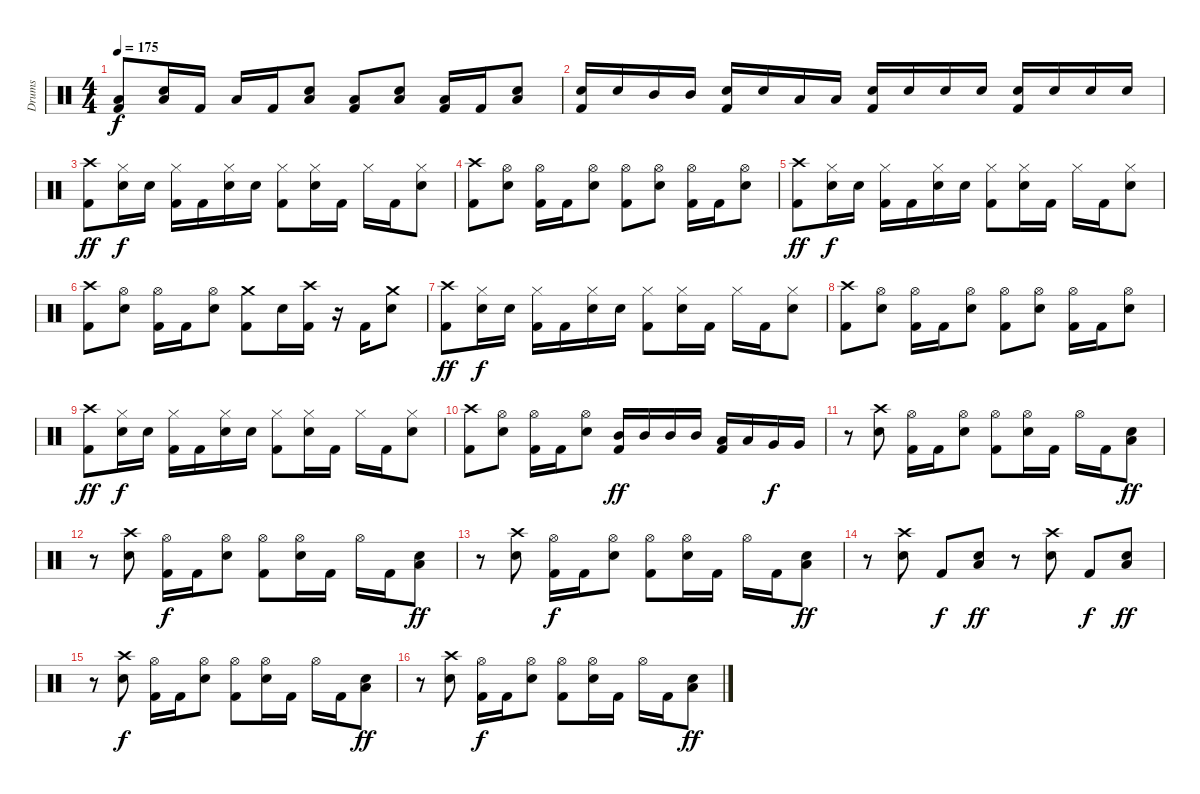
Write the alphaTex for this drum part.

\track ("Drums" "Drums") {instrument percussion}
\staff {score}
\articulation defaults
\ts (4 4)
\tempo 175
\clef neutral
\ks c
("Low Floor Tom (hit)" "Kick (hit) 2").8{dy f} ("Low Floor Tom (hit)" "Electric Snare (hit)").16 "Kick (hit) 2".16 "Low Floor Tom (hit)".16 "Kick (hit) 2".16 ("Low Floor Tom (hit)" "Electric Snare (hit)").8 ("Low Floor Tom (hit)" "Kick (hit) 2").8 ("Low Floor Tom (hit)" "Electric Snare (hit)").8 ("Low Floor Tom (hit)" "Kick (hit) 2").16 "Kick (hit) 2".16 ("Low Floor Tom (hit)" "Electric Snare (hit)").8 |
("Electric Snare (hit)" "Kick (hit) 2").16 "Electric Snare (hit)".16 "Mid Tom (hit)".16 "Mid Tom (hit)".16 ("Electric Snare (hit)" "Kick (hit) 2").16 "Electric Snare (hit)".16 "Low Tom (hit)".16 "Low Tom (hit)".16 ("Electric Snare (hit)" "Kick (hit) 2").16 "Electric Snare (hit)".16 "Electric Snare (hit)".16 "Electric Snare (hit)".16 ("Electric Snare (hit)" "Kick (hit) 2").16 "Electric Snare (hit)".16 "Electric Snare (hit)".16 "Electric Snare (hit)".16 |
("Crash high (hit)" "Kick (hit) 2").8{dy ff} ("Hi-Hat (closed)" "Electric Snare (hit)").16{dy f} "Electric Snare (hit)".16 ("Hi-Hat (closed)" "Kick (hit) 2").16 "Kick (hit) 2".16 ("Hi-Hat (closed)" "Electric Snare (hit)").16 "Electric Snare (hit)".16 ("Hi-Hat (closed)" "Kick (hit) 2").8 ("Hi-Hat (closed)" "Electric Snare (hit)").16 "Kick (hit) 2".16 "Hi-Hat (closed)".16 "Kick (hit) 2".16 ("Hi-Hat (closed)" "Electric Snare (hit)").8 |
("Crash high (hit)" "Kick (hit) 2").8 ("Hi-Hat (open)" "Electric Snare (hit)").8 ("Hi-Hat (open)" "Kick (hit) 2").16 "Kick (hit) 2".16 ("Hi-Hat (open)" "Electric Snare (hit)").8 ("Hi-Hat (open)" "Kick (hit) 2").8 ("Hi-Hat (open)" "Electric Snare (hit)").8 ("Hi-Hat (open)" "Kick (hit) 2").16 "Kick (hit) 2".16 ("Hi-Hat (open)" "Electric Snare (hit)").8 |
("Crash high (hit)" "Kick (hit) 2").8{dy ff} ("Hi-Hat (closed)" "Electric Snare (hit)").16{dy f} "Electric Snare (hit)".16 ("Hi-Hat (closed)" "Kick (hit) 2").16 "Kick (hit) 2".16 ("Hi-Hat (closed)" "Electric Snare (hit)").16 "Electric Snare (hit)".16 ("Hi-Hat (closed)" "Kick (hit) 2").8 ("Hi-Hat (closed)" "Electric Snare (hit)").16 "Kick (hit) 2".16 "Hi-Hat (closed)".16 "Kick (hit) 2".16 ("Hi-Hat (closed)" "Electric Snare (hit)").8 |
("Crash high (hit)" "Kick (hit) 2").8 ("Hi-Hat (open)" "Electric Snare (hit)").8 ("Hi-Hat (open)" "Kick (hit) 2").16 "Kick (hit) 2".16 ("Hi-Hat (open)" "Electric Snare (hit)").8 ("Crash medium (hit)" "Kick (hit) 2").8 "Electric Snare (hit)".16 ("Crash high (hit)" "Kick (hit) 2").16 r.16 "Kick (hit) 2".16 ("Crash medium (hit)" "Electric Snare (hit)").8 |
("Crash high (hit)" "Kick (hit) 2").8{dy ff} ("Hi-Hat (closed)" "Electric Snare (hit)").16{dy f} "Electric Snare (hit)".16 ("Hi-Hat (closed)" "Kick (hit) 2").16 "Kick (hit) 2".16 ("Hi-Hat (closed)" "Electric Snare (hit)").16 "Electric Snare (hit)".16 ("Hi-Hat (closed)" "Kick (hit) 2").8 ("Hi-Hat (closed)" "Electric Snare (hit)").16 "Kick (hit) 2".16 "Hi-Hat (closed)".16 "Kick (hit) 2".16 ("Hi-Hat (closed)" "Electric Snare (hit)").8 |
("Crash high (hit)" "Kick (hit) 2").8 ("Hi-Hat (open)" "Electric Snare (hit)").8 ("Hi-Hat (open)" "Kick (hit) 2").16 "Kick (hit) 2".16 ("Hi-Hat (open)" "Electric Snare (hit)").8 ("Hi-Hat (open)" "Kick (hit) 2").8 ("Hi-Hat (open)" "Electric Snare (hit)").8 ("Hi-Hat (open)" "Kick (hit) 2").16 "Kick (hit) 2".16 ("Hi-Hat (open)" "Electric Snare (hit)").8 |
("Crash high (hit)" "Kick (hit) 2").8{dy ff} ("Hi-Hat (closed)" "Electric Snare (hit)").16{dy f} "Electric Snare (hit)".16 ("Hi-Hat (closed)" "Kick (hit) 2").16 "Kick (hit) 2".16 ("Hi-Hat (closed)" "Electric Snare (hit)").16 "Electric Snare (hit)".16 ("Hi-Hat (closed)" "Kick (hit) 2").8 ("Hi-Hat (closed)" "Electric Snare (hit)").16 "Kick (hit) 2".16 "Hi-Hat (closed)".16 "Kick (hit) 2".16 ("Hi-Hat (closed)" "Electric Snare (hit)").8 |
("Crash high (hit)" "Kick (hit) 2").8 ("Hi-Hat (open)" "Electric Snare (hit)").8 ("Hi-Hat (open)" "Kick (hit) 2").16 "Kick (hit) 2".16 ("Hi-Hat (open)" "Electric Snare (hit)").8 ("Mid Tom (hit)" "Kick (hit) 2").16{dy ff} "Mid Tom (hit)".16 "Mid Tom (hit)".16 "Mid Tom (hit)".16 ("Low Tom (hit)" "Kick (hit) 2").16 "Low Tom (hit)".16 "Very Low Tom (hit)".16{dy f} "Very Low Tom (hit)".16 |
r.8 ("Crash high (hit)" "Electric Snare (hit)").8 ("Hi-Hat (open)" "Kick (hit) 2").16 "Kick (hit) 2".16 ("Hi-Hat (open)" "Electric Snare (hit)").8 ("Hi-Hat (open)" "Kick (hit) 2").8 ("Hi-Hat (open)" "Electric Snare (hit)").16 "Kick (hit) 2".16 "Hi-Hat (open)".16 "Kick (hit) 2".16 ("Low Floor Tom (hit)" "Electric Snare (hit)").8{dy ff} |
r.8 ("Crash high (hit)" "Electric Snare (hit)").8 ("Hi-Hat (open)" "Kick (hit) 2").16{dy f} "Kick (hit) 2".16 ("Hi-Hat (open)" "Electric Snare (hit)").8 ("Hi-Hat (open)" "Kick (hit) 2").8 ("Hi-Hat (open)" "Electric Snare (hit)").16 "Kick (hit) 2".16 "Hi-Hat (open)".16 "Kick (hit) 2".16 ("Low Floor Tom (hit)" "Electric Snare (hit)").8{dy ff} |
r.8 ("Crash high (hit)" "Electric Snare (hit)").8 ("Hi-Hat (open)" "Kick (hit) 2").16{dy f} "Kick (hit) 2".16 ("Hi-Hat (open)" "Electric Snare (hit)").8 ("Hi-Hat (open)" "Kick (hit) 2").8 ("Hi-Hat (open)" "Electric Snare (hit)").16 "Kick (hit) 2".16 "Hi-Hat (open)".16 "Kick (hit) 2".16 ("Low Floor Tom (hit)" "Electric Snare (hit)").8{dy ff} |
r.8 ("Crash high (hit)" "Electric Snare (hit)").8 "Kick (hit) 2".8{dy f} ("Low Floor Tom (hit)" "Electric Snare (hit)").8{dy ff} r.8 ("Crash high (hit)" "Electric Snare (hit)").8 "Kick (hit) 2".8{dy f} ("Low Floor Tom (hit)" "Electric Snare (hit)").8{dy ff} |
r.8 ("Crash high (hit)" "Electric Snare (hit)").8{dy f} ("Hi-Hat (open)" "Kick (hit) 2").16 "Kick (hit) 2".16 ("Hi-Hat (open)" "Electric Snare (hit)").8 ("Hi-Hat (open)" "Kick (hit) 2").8 ("Hi-Hat (open)" "Electric Snare (hit)").16 "Kick (hit) 2".16 "Hi-Hat (open)".16 "Kick (hit) 2".16 ("Low Floor Tom (hit)" "Electric Snare (hit)").8{dy ff} |
r.8 ("Crash high (hit)" "Electric Snare (hit)").8 ("Hi-Hat (open)" "Kick (hit) 2").16{dy f} "Kick (hit) 2".16 ("Hi-Hat (open)" "Electric Snare (hit)").8 ("Hi-Hat (open)" "Kick (hit) 2").8 ("Hi-Hat (open)" "Electric Snare (hit)").16 "Kick (hit) 2".16 "Hi-Hat (open)".16 "Kick (hit) 2".16 ("Low Floor Tom (hit)" "Electric Snare (hit)").8{dy ff}
